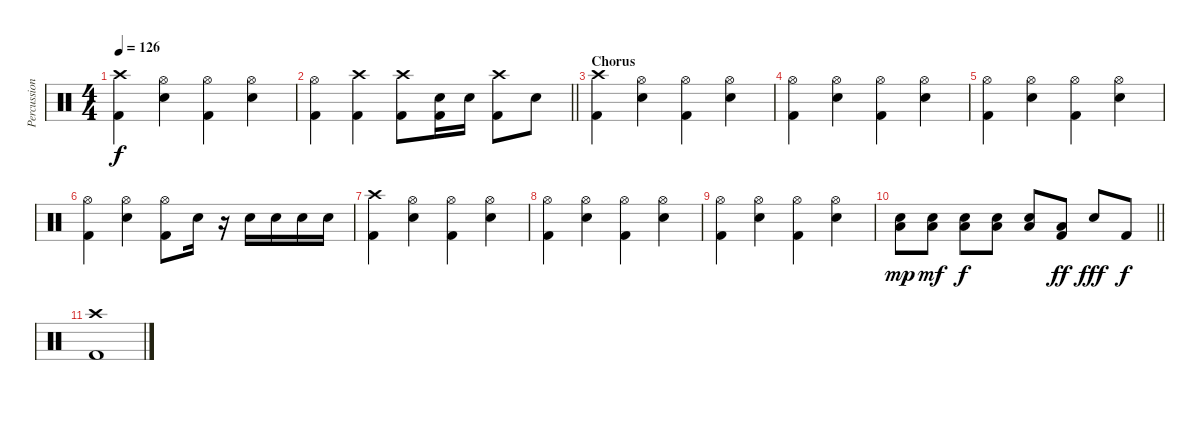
\track ("Percussion" "Percussion") {instrument percussion}
\staff {score}
\articulation defaults
\ts (4 4)
\tempo 126
\clef neutral
\ks c
("Crash high (hit)" "Kick (hit) 2").4{dy f} ("Hi-Hat (open)" "Electric Snare (hit)").4 ("Hi-Hat (open)" "Kick (hit) 2").4 ("Hi-Hat (open)" "Electric Snare (hit)").4 |
\barLineRight lightlight
("Hi-Hat (open)" "Kick (hit) 2").4 ("Crash high (hit)" "Kick (hit) 2").4 ("Crash high (hit)" "Kick (hit) 2").8 ("Electric Snare (hit)" "Kick (hit) 2").16 "Electric Snare (hit)".16 ("Crash high (hit)" "Kick (hit) 2").8 "Electric Snare (hit)".8 |
\section ("" "Chorus")
("Crash high (hit)" "Kick (hit) 2").4 ("Hi-Hat (open)" "Electric Snare (hit)").4 ("Hi-Hat (open)" "Kick (hit) 2").4 ("Hi-Hat (open)" "Electric Snare (hit)").4 |
("Hi-Hat (open)" "Kick (hit) 2").4 ("Hi-Hat (open)" "Electric Snare (hit)").4 ("Hi-Hat (open)" "Kick (hit) 2").4 ("Hi-Hat (open)" "Electric Snare (hit)").4 |
("Hi-Hat (open)" "Kick (hit) 2").4 ("Hi-Hat (open)" "Electric Snare (hit)").4 ("Hi-Hat (open)" "Kick (hit) 2").4 ("Hi-Hat (open)" "Electric Snare (hit)").4 |
("Hi-Hat (open)" "Kick (hit) 2").4 ("Hi-Hat (open)" "Electric Snare (hit)").4 ("Hi-Hat (open)" "Kick (hit) 2").8 "Electric Snare (hit)".16 r.16 "Electric Snare (hit)".16 "Electric Snare (hit)".16 "Electric Snare (hit)".16 "Electric Snare (hit)".16 |
("Crash high (hit)" "Kick (hit) 2").4 ("Hi-Hat (open)" "Electric Snare (hit)").4 ("Hi-Hat (open)" "Kick (hit) 2").4 ("Hi-Hat (open)" "Electric Snare (hit)").4 |
("Hi-Hat (open)" "Kick (hit) 2").4 ("Hi-Hat (open)" "Electric Snare (hit)").4 ("Hi-Hat (open)" "Kick (hit) 2").4 ("Hi-Hat (open)" "Electric Snare (hit)").4 |
("Hi-Hat (open)" "Kick (hit) 2").4 ("Hi-Hat (open)" "Electric Snare (hit)").4 ("Hi-Hat (open)" "Kick (hit) 2").4 ("Hi-Hat (open)" "Electric Snare (hit)").4 |
\barLineRight lightlight
("Electric Snare (hit)" "Low Floor Tom (hit)").8{dy mp} ("Electric Snare (hit)" "Low Floor Tom (hit)").8{dy mf} ("Electric Snare (hit)" "Low Floor Tom (hit)").8{dy f} ("Electric Snare (hit)" "Low Floor Tom (hit)").8 ("Electric Snare (hit)" "Low Floor Tom (hit)").8 ("Low Floor Tom (hit)" "Kick (hit) 2").8{dy ff} "Electric Snare (hit)".8{dy fff} "Kick (hit) 2".8{dy f} |
("Crash high (hit)" "Kick (hit) 2").1
